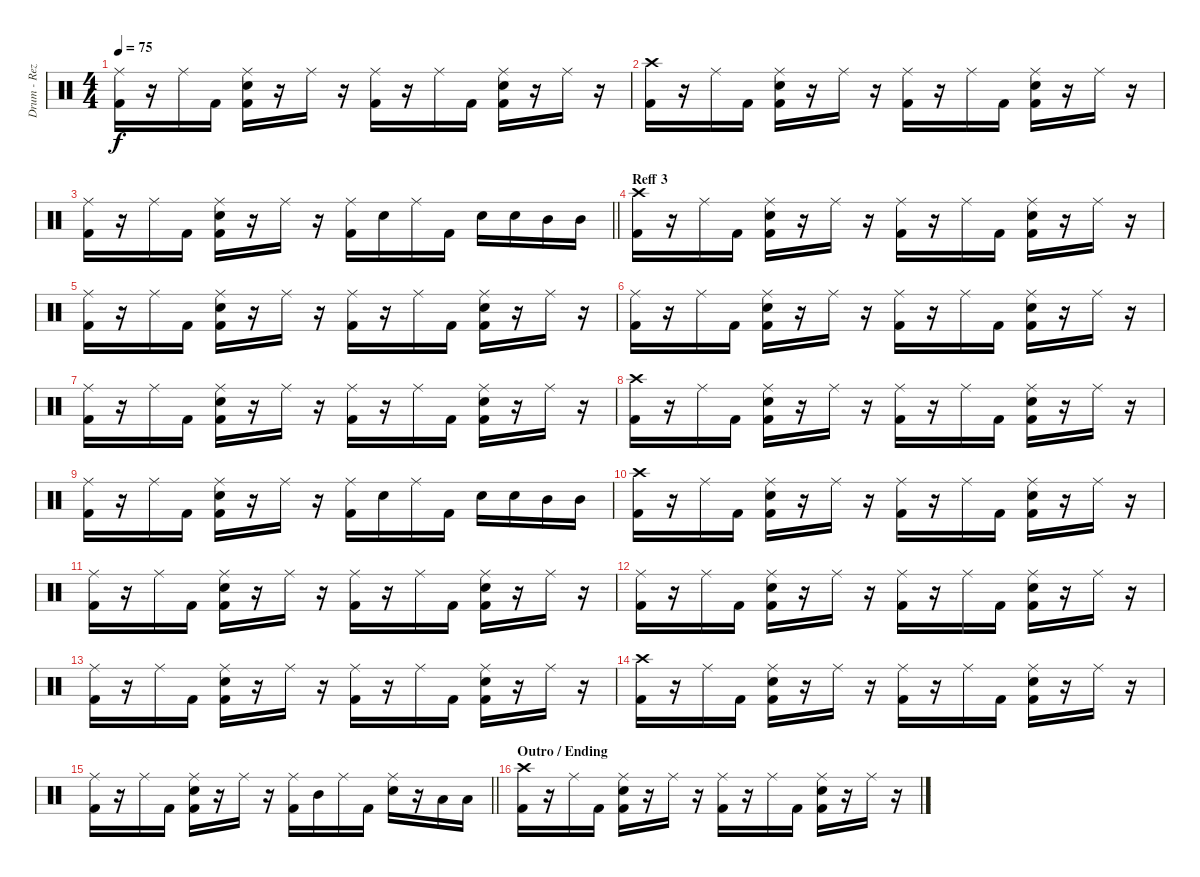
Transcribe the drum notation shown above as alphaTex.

\track ("Drum - Reza" "Drum - Rez") {instrument percussion}
\staff {score}
\articulation defaults
\ts (4 4)
\tempo 75
\clef neutral
\ks c
("Ride (middle)" "Kick (hit) 2").16{dy f} r.16 "Ride (middle)".16 "Kick (hit) 2".16 ("Ride (middle)" "Electric Snare (hit)" "Kick (hit) 2").16 r.16 "Ride (middle)".16 r.16 ("Ride (middle)" "Kick (hit) 2").16 r.16 "Ride (middle)".16 "Kick (hit) 2".16 ("Ride (middle)" "Electric Snare (hit)" "Kick (hit) 2").16 r.16 "Ride (middle)".16 r.16 |
("Crash high (hit)" "Kick (hit) 2").16 r.16 "Ride (middle)".16 "Kick (hit) 2".16 ("Ride (middle)" "Electric Snare (hit)" "Kick (hit) 2").16 r.16 "Ride (middle)".16 r.16 ("Ride (middle)" "Kick (hit) 2").16 r.16 "Ride (middle)".16 "Kick (hit) 2".16 ("Ride (middle)" "Electric Snare (hit)" "Kick (hit) 2").16 r.16 "Ride (middle)".16 r.16 |
\barLineRight lightlight
("Ride (middle)" "Kick (hit) 2").16 r.16 "Ride (middle)".16 "Kick (hit) 2".16 ("Ride (middle)" "Electric Snare (hit)" "Kick (hit) 2").16 r.16 "Ride (middle)".16 r.16 ("Ride (middle)" "Kick (hit) 2").16 "Electric Snare (hit)".16 "Ride (middle)".16 "Kick (hit) 2".16 "Electric Snare (hit)".16 "Electric Snare (hit)".16 "Mid Tom (hit)".16 "Mid Tom (hit)".16 |
\section ("" "Reff 3")
("Crash high (hit)" "Kick (hit) 2").16 r.16 "Ride (middle)".16 "Kick (hit) 2".16 ("Ride (middle)" "Electric Snare (hit)" "Kick (hit) 2").16 r.16 "Ride (middle)".16 r.16 ("Ride (middle)" "Kick (hit) 2").16 r.16 "Ride (middle)".16 "Kick (hit) 2".16 ("Ride (middle)" "Electric Snare (hit)" "Kick (hit) 2").16 r.16 "Ride (middle)".16 r.16 |
("Ride (middle)" "Kick (hit) 2").16 r.16 "Ride (middle)".16 "Kick (hit) 2".16 ("Ride (middle)" "Electric Snare (hit)" "Kick (hit) 2").16 r.16 "Ride (middle)".16 r.16 ("Ride (middle)" "Kick (hit) 2").16 r.16 "Ride (middle)".16 "Kick (hit) 2".16 ("Ride (middle)" "Electric Snare (hit)" "Kick (hit) 2").16 r.16 "Ride (middle)".16 r.16 |
("Ride (middle)" "Kick (hit) 2").16 r.16 "Ride (middle)".16 "Kick (hit) 2".16 ("Ride (middle)" "Electric Snare (hit)" "Kick (hit) 2").16 r.16 "Ride (middle)".16 r.16 ("Ride (middle)" "Kick (hit) 2").16 r.16 "Ride (middle)".16 "Kick (hit) 2".16 ("Ride (middle)" "Electric Snare (hit)" "Kick (hit) 2").16 r.16 "Ride (middle)".16 r.16 |
("Ride (middle)" "Kick (hit) 2").16 r.16 "Ride (middle)".16 "Kick (hit) 2".16 ("Ride (middle)" "Electric Snare (hit)" "Kick (hit) 2").16 r.16 "Ride (middle)".16 r.16 ("Ride (middle)" "Kick (hit) 2").16 r.16 "Ride (middle)".16 "Kick (hit) 2".16 ("Ride (middle)" "Electric Snare (hit)" "Kick (hit) 2").16 r.16 "Ride (middle)".16 r.16 |
("Crash high (hit)" "Kick (hit) 2").16 r.16 "Ride (middle)".16 "Kick (hit) 2".16 ("Ride (middle)" "Electric Snare (hit)" "Kick (hit) 2").16 r.16 "Ride (middle)".16 r.16 ("Ride (middle)" "Kick (hit) 2").16 r.16 "Ride (middle)".16 "Kick (hit) 2".16 ("Ride (middle)" "Electric Snare (hit)" "Kick (hit) 2").16 r.16 "Ride (middle)".16 r.16 |
("Ride (middle)" "Kick (hit) 2").16 r.16 "Ride (middle)".16 "Kick (hit) 2".16 ("Ride (middle)" "Electric Snare (hit)" "Kick (hit) 2").16 r.16 "Ride (middle)".16 r.16 ("Ride (middle)" "Kick (hit) 2").16 "Electric Snare (hit)".16 "Ride (middle)".16 "Kick (hit) 2".16 "Electric Snare (hit)".16 "Electric Snare (hit)".16 "Mid Tom (hit)".16 "Mid Tom (hit)".16 |
("Crash high (hit)" "Kick (hit) 2").16 r.16 "Ride (middle)".16 "Kick (hit) 2".16 ("Ride (middle)" "Electric Snare (hit)" "Kick (hit) 2").16 r.16 "Ride (middle)".16 r.16 ("Ride (middle)" "Kick (hit) 2").16 r.16 "Ride (middle)".16 "Kick (hit) 2".16 ("Ride (middle)" "Electric Snare (hit)" "Kick (hit) 2").16 r.16 "Ride (middle)".16 r.16 |
("Ride (middle)" "Kick (hit) 2").16 r.16 "Ride (middle)".16 "Kick (hit) 2".16 ("Ride (middle)" "Electric Snare (hit)" "Kick (hit) 2").16 r.16 "Ride (middle)".16 r.16 ("Ride (middle)" "Kick (hit) 2").16 r.16 "Ride (middle)".16 "Kick (hit) 2".16 ("Ride (middle)" "Electric Snare (hit)" "Kick (hit) 2").16 r.16 "Ride (middle)".16 r.16 |
("Ride (middle)" "Kick (hit) 2").16 r.16 "Ride (middle)".16 "Kick (hit) 2".16 ("Ride (middle)" "Electric Snare (hit)" "Kick (hit) 2").16 r.16 "Ride (middle)".16 r.16 ("Ride (middle)" "Kick (hit) 2").16 r.16 "Ride (middle)".16 "Kick (hit) 2".16 ("Ride (middle)" "Electric Snare (hit)" "Kick (hit) 2").16 r.16 "Ride (middle)".16 r.16 |
("Ride (middle)" "Kick (hit) 2").16 r.16 "Ride (middle)".16 "Kick (hit) 2".16 ("Ride (middle)" "Electric Snare (hit)" "Kick (hit) 2").16 r.16 "Ride (middle)".16 r.16 ("Ride (middle)" "Kick (hit) 2").16 r.16 "Ride (middle)".16 "Kick (hit) 2".16 ("Ride (middle)" "Electric Snare (hit)" "Kick (hit) 2").16 r.16 "Ride (middle)".16 r.16 |
("Crash high (hit)" "Kick (hit) 2").16 r.16 "Ride (middle)".16 "Kick (hit) 2".16 ("Ride (middle)" "Electric Snare (hit)" "Kick (hit) 2").16 r.16 "Ride (middle)".16 r.16 ("Ride (middle)" "Kick (hit) 2").16 r.16 "Ride (middle)".16 "Kick (hit) 2".16 ("Ride (middle)" "Electric Snare (hit)" "Kick (hit) 2").16 r.16 "Ride (middle)".16 r.16 |
\barLineRight lightlight
("Ride (middle)" "Kick (hit) 2").16 r.16 "Ride (middle)".16 "Kick (hit) 2".16 ("Ride (middle)" "Electric Snare (hit)" "Kick (hit) 2").16 r.16 "Ride (middle)".16 r.16 ("Ride (middle)" "Kick (hit) 2").16 "Mid Tom (hit)".16 "Ride (middle)".16 "Kick (hit) 2".16 ("Ride (middle)" "Electric Snare (hit)").16 r.16 "Low Tom (hit)".16 "Low Tom (hit)".16 |
\section ("" "Outro / Ending")
("Crash high (hit)" "Kick (hit) 2").16 r.16 "Ride (middle)".16 "Kick (hit) 2".16 ("Ride (middle)" "Electric Snare (hit)" "Kick (hit) 2").16 r.16 "Ride (middle)".16 r.16 ("Ride (middle)" "Kick (hit) 2").16 r.16 "Ride (middle)".16 "Kick (hit) 2".16 ("Ride (middle)" "Electric Snare (hit)" "Kick (hit) 2").16 r.16 "Ride (middle)".16 r.16
